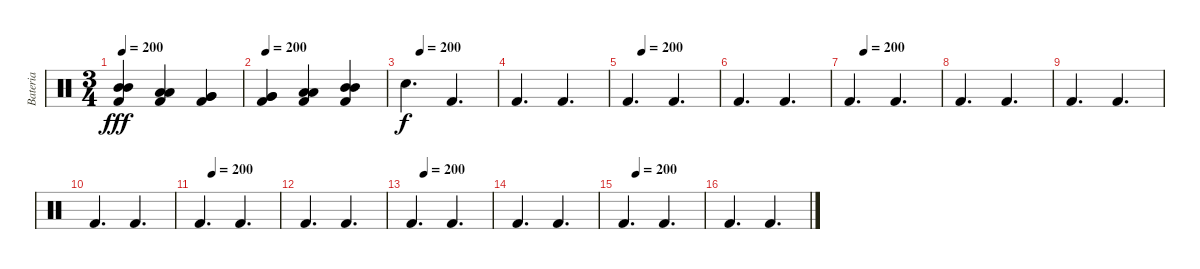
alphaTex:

\track ("Bateria" "Bateria") {instrument percussion}
\staff {score}
\articulation defaults
\ts (3 4)
\tempo 200
\clef neutral
\ks c
("Mid Tom (hit)" "Mid Tom (hit)" "Kick (hit) 2").4{dy fff volume 15} ("Low Tom (hit)" "Low Tom (hit)" "Kick (hit) 2").4 ("Very Low Tom (hit)" "Very Low Tom (hit)" "Kick (hit) 2").4 |
\tempo 200
("Very Low Tom (hit)" "Very Low Tom (hit)" "Kick (hit) 2").4 ("Low Tom (hit)" "Low Tom (hit)" "Kick (hit) 2").4 ("Mid Tom (hit)" "Mid Tom (hit)" "Kick (hit) 2").4 |
\tempo (200 0.16666666666666666)
"Electric Snare (hit)".4{d dy f} "Kick (hit) 2".4{d volume 14} |
"Kick (hit) 2".4{d} "Kick (hit) 2".4{d} |
\tempo (200 0.16666666666666666)
"Kick (hit) 2".4{d} "Kick (hit) 2".4{d} |
"Kick (hit) 2".4{d} "Kick (hit) 2".4{d} |
\tempo (200 0.16666666666666666)
"Kick (hit) 2".4{d} "Kick (hit) 2".4{d} |
"Kick (hit) 2".4{d} "Kick (hit) 2".4{d} |
"Kick (hit) 2".4{d} "Kick (hit) 2".4{d} |
"Kick (hit) 2".4{d} "Kick (hit) 2".4{d} |
\tempo (200 0.16666666666666666)
"Kick (hit) 2".4{d} "Kick (hit) 2".4{d} |
"Kick (hit) 2".4{d} "Kick (hit) 2".4{d} |
\tempo (200 0.16666666666666666)
"Kick (hit) 2".4{d} "Kick (hit) 2".4{d} |
"Kick (hit) 2".4{d} "Kick (hit) 2".4{d} |
\tempo (200 0.16666666666666666)
"Kick (hit) 2".4{d} "Kick (hit) 2".4{d} |
"Kick (hit) 2".4{d} "Kick (hit) 2".4{d}
